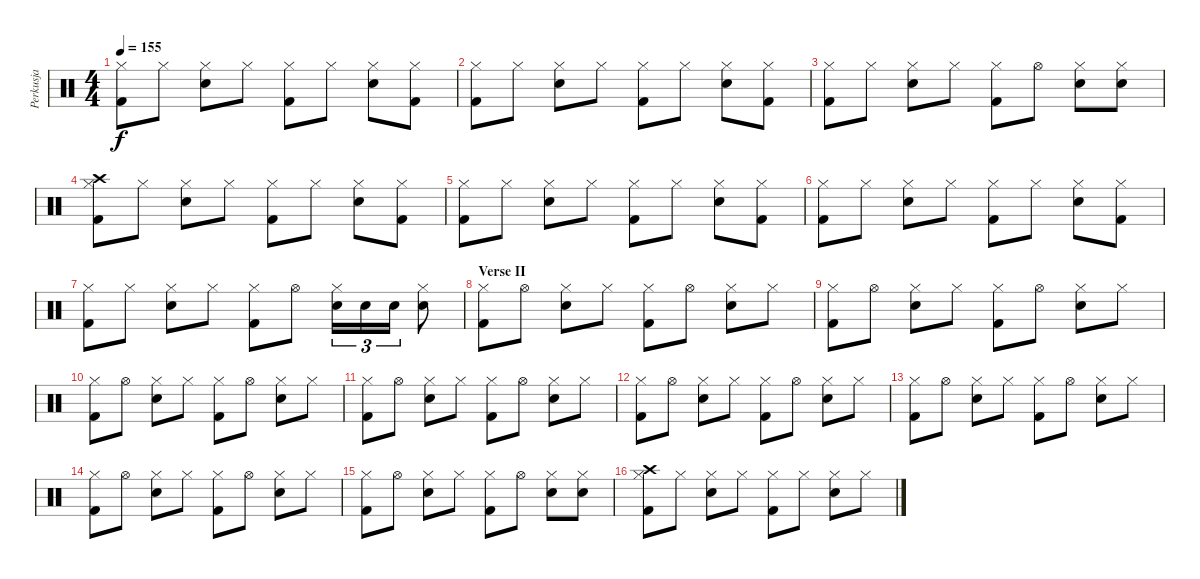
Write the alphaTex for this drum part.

\track ("Perkusja" "Perkusja") {instrument percussion}
\staff {score}
\articulation defaults
\ts (4 4)
\tempo 155
\clef neutral
\ks c
("Hi-Hat (closed)" "Kick (hit) 2").8{dy f} "Hi-Hat (closed)".8 ("Hi-Hat (closed)" "Electric Snare (hit)").8 "Hi-Hat (closed)".8 ("Hi-Hat (closed)" "Kick (hit) 2").8 "Hi-Hat (closed)".8 ("Hi-Hat (closed)" "Electric Snare (hit)").8 ("Hi-Hat (closed)" "Kick (hit) 2").8 |
("Hi-Hat (closed)" "Kick (hit) 2").8 "Hi-Hat (closed)".8 ("Hi-Hat (closed)" "Electric Snare (hit)").8 "Hi-Hat (closed)".8 ("Hi-Hat (closed)" "Kick (hit) 2").8 "Hi-Hat (closed)".8 ("Hi-Hat (closed)" "Electric Snare (hit)").8 ("Hi-Hat (closed)" "Kick (hit) 2").8 |
("Hi-Hat (closed)" "Kick (hit) 2").8 "Hi-Hat (closed)".8 ("Hi-Hat (closed)" "Electric Snare (hit)").8 "Hi-Hat (closed)".8 ("Hi-Hat (closed)" "Kick (hit) 2").8 "Hi-Hat (open)".8 ("Hi-Hat (closed)" "Electric Snare (hit)").8 ("Hi-Hat (closed)" "Electric Snare (hit)").8 |
("Hi-Hat (closed)" "Kick (hit) 2" "Crash high (hit)").8 "Hi-Hat (closed)".8 ("Hi-Hat (closed)" "Electric Snare (hit)").8 "Hi-Hat (closed)".8 ("Hi-Hat (closed)" "Kick (hit) 2").8 "Hi-Hat (closed)".8 ("Hi-Hat (closed)" "Electric Snare (hit)").8 ("Hi-Hat (closed)" "Kick (hit) 2").8 |
("Hi-Hat (closed)" "Kick (hit) 2").8 "Hi-Hat (closed)".8 ("Hi-Hat (closed)" "Electric Snare (hit)").8 "Hi-Hat (closed)".8 ("Hi-Hat (closed)" "Kick (hit) 2").8 "Hi-Hat (closed)".8 ("Hi-Hat (closed)" "Electric Snare (hit)").8 ("Hi-Hat (closed)" "Kick (hit) 2").8 |
("Hi-Hat (closed)" "Kick (hit) 2").8 "Hi-Hat (closed)".8 ("Hi-Hat (closed)" "Electric Snare (hit)").8 "Hi-Hat (closed)".8 ("Hi-Hat (closed)" "Kick (hit) 2").8 "Hi-Hat (closed)".8 ("Hi-Hat (closed)" "Electric Snare (hit)").8 ("Hi-Hat (closed)" "Kick (hit) 2").8 |
("Hi-Hat (closed)" "Kick (hit) 2").8 "Hi-Hat (closed)".8 ("Hi-Hat (closed)" "Electric Snare (hit)").8 "Hi-Hat (closed)".8 ("Hi-Hat (closed)" "Kick (hit) 2").8 "Hi-Hat (open)".8 ("Hi-Hat (closed)" "Electric Snare (hit)").16{tu (3 2)} "Electric Snare (hit)".16{tu (3 2)} "Electric Snare (hit)".16{tu (3 2)} ("Hi-Hat (closed)" "Electric Snare (hit)").8 |
\section ("" "Verse II")
("Hi-Hat (closed)" "Kick (hit) 2").8 "Hi-Hat (open)".8 ("Hi-Hat (closed)" "Electric Snare (hit)").8 "Hi-Hat (closed)".8 ("Hi-Hat (closed)" "Kick (hit) 2").8 "Hi-Hat (open)".8 ("Hi-Hat (closed)" "Electric Snare (hit)").8 "Hi-Hat (closed)".8 |
("Hi-Hat (closed)" "Kick (hit) 2").8 "Hi-Hat (open)".8 ("Hi-Hat (closed)" "Electric Snare (hit)").8 "Hi-Hat (closed)".8 ("Hi-Hat (closed)" "Kick (hit) 2").8 "Hi-Hat (open)".8 ("Hi-Hat (closed)" "Electric Snare (hit)").8 "Hi-Hat (closed)".8 |
("Hi-Hat (closed)" "Kick (hit) 2").8 "Hi-Hat (open)".8 ("Hi-Hat (closed)" "Electric Snare (hit)").8 "Hi-Hat (closed)".8 ("Hi-Hat (closed)" "Kick (hit) 2").8 "Hi-Hat (open)".8 ("Hi-Hat (closed)" "Electric Snare (hit)").8 "Hi-Hat (closed)".8 |
("Hi-Hat (closed)" "Kick (hit) 2").8 "Hi-Hat (open)".8 ("Hi-Hat (closed)" "Electric Snare (hit)").8 "Hi-Hat (closed)".8 ("Hi-Hat (closed)" "Kick (hit) 2").8 "Hi-Hat (open)".8 ("Hi-Hat (closed)" "Electric Snare (hit)").8 "Hi-Hat (closed)".8 |
("Hi-Hat (closed)" "Kick (hit) 2").8 "Hi-Hat (open)".8 ("Hi-Hat (closed)" "Electric Snare (hit)").8 "Hi-Hat (closed)".8 ("Hi-Hat (closed)" "Kick (hit) 2").8 "Hi-Hat (open)".8 ("Hi-Hat (closed)" "Electric Snare (hit)").8 "Hi-Hat (closed)".8 |
("Hi-Hat (closed)" "Kick (hit) 2").8 "Hi-Hat (open)".8 ("Hi-Hat (closed)" "Electric Snare (hit)").8 "Hi-Hat (closed)".8 ("Hi-Hat (closed)" "Kick (hit) 2").8 "Hi-Hat (open)".8 ("Hi-Hat (closed)" "Electric Snare (hit)").8 "Hi-Hat (closed)".8 |
("Hi-Hat (closed)" "Kick (hit) 2").8 "Hi-Hat (open)".8 ("Hi-Hat (closed)" "Electric Snare (hit)").8 "Hi-Hat (closed)".8 ("Hi-Hat (closed)" "Kick (hit) 2").8 "Hi-Hat (open)".8 ("Hi-Hat (closed)" "Electric Snare (hit)").8 "Hi-Hat (closed)".8 |
("Hi-Hat (closed)" "Kick (hit) 2").8 "Hi-Hat (open)".8 ("Hi-Hat (closed)" "Electric Snare (hit)").8 "Hi-Hat (closed)".8 ("Hi-Hat (closed)" "Kick (hit) 2").8 "Hi-Hat (open)".8 ("Hi-Hat (closed)" "Electric Snare (hit)").8 ("Hi-Hat (closed)" "Electric Snare (hit)").8 |
("Hi-Hat (closed)" "Kick (hit) 2" "Crash high (hit)").8 "Hi-Hat (closed)".8 ("Hi-Hat (closed)" "Electric Snare (hit)").8 "Hi-Hat (closed)".8 ("Hi-Hat (closed)" "Kick (hit) 2").8 "Hi-Hat (closed)".8 ("Hi-Hat (closed)" "Electric Snare (hit)").8 "Hi-Hat (closed)".8
